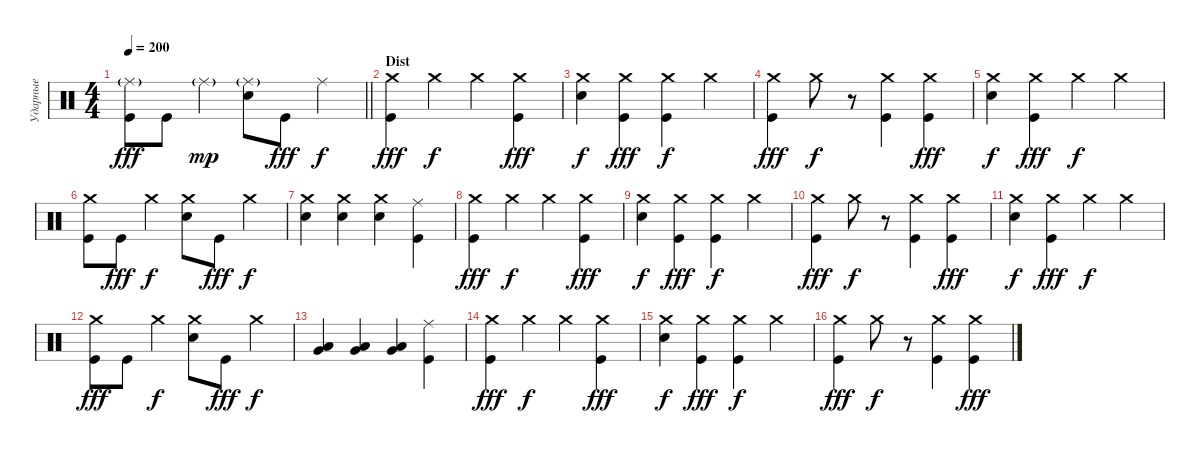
\track ("Ударные" "Ударные") {instrument percussion}
\staff {score}
\articulation defaults
\ts (4 4)
\tempo 200
\clef neutral
\barLineRight lightlight
\ks c
("Ride (middle)"{g} "Kick (hit)").8{dy fff} "Kick (hit)".8 "Ride (middle)"{g}.4{dy mp} ("Ride (middle)"{g} "Electric Snare (hit)").8 "Kick (hit)".8{dy fff} "Ride (middle)".4{dy f} |
\section ("" "Dist")
("Crash medium (hit)" "Kick (hit)").4{dy fff volume 13} "Crash medium (hit)".4{dy f} "Crash medium (hit)".4 ("Crash medium (hit)" "Kick (hit)").4{dy fff} |
("Crash medium (hit)" "Electric Snare (hit)").4{dy f} ("Crash medium (hit)" "Kick (hit)").4{dy fff} ("Crash medium (hit)" "Kick (hit)").4{dy f} "Crash medium (hit)".4 |
("Crash medium (hit)" "Kick (hit)").4{dy fff} "Crash medium (hit)".8{dy f} r.8 ("Crash medium (hit)" "Kick (hit)").4 ("Crash medium (hit)" "Kick (hit)").4{dy fff} |
("Crash medium (hit)" "Electric Snare (hit)").4{dy f} ("Crash medium (hit)" "Kick (hit)").4{dy fff} "Crash medium (hit)".4{dy f} "Crash medium (hit)".4 |
("Crash medium (hit)" "Kick (hit)").8 "Kick (hit)".8{dy fff} "Crash medium (hit)".4{dy f} ("Crash medium (hit)" "Electric Snare (hit)").8 "Kick (hit)".8{dy fff} "Crash medium (hit)".4{dy f} |
("Crash medium (hit)" "Electric Snare (hit)").4 ("Crash medium (hit)" "Electric Snare (hit)").4 ("Crash medium (hit)" "Electric Snare (hit)").4 ("Ride (middle)" "Kick (hit)").4 |
("Crash medium (hit)" "Kick (hit)").4{dy fff volume 13} "Crash medium (hit)".4{dy f} "Crash medium (hit)".4 ("Crash medium (hit)" "Kick (hit)").4{dy fff} |
("Crash medium (hit)" "Electric Snare (hit)").4{dy f} ("Crash medium (hit)" "Kick (hit)").4{dy fff} ("Crash medium (hit)" "Kick (hit)").4{dy f} "Crash medium (hit)".4 |
("Crash medium (hit)" "Kick (hit)").4{dy fff} "Crash medium (hit)".8{dy f} r.8 ("Crash medium (hit)" "Kick (hit)").4 ("Crash medium (hit)" "Kick (hit)").4{dy fff} |
("Crash medium (hit)" "Electric Snare (hit)").4{dy f} ("Crash medium (hit)" "Kick (hit)").4{dy fff} "Crash medium (hit)".4{dy f} "Crash medium (hit)".4 |
("Crash medium (hit)" "Kick (hit)").8{dy fff} "Kick (hit)".8 "Crash medium (hit)".4{dy f} ("Crash medium (hit)" "Electric Snare (hit)").8 "Kick (hit)".8{dy fff} "Crash medium (hit)".4{dy f} |
("Very Low Tom (hit)" "Low Tom (hit)").4 ("Very Low Tom (hit)" "Low Tom (hit)").4 ("Very Low Tom (hit)" "Low Tom (hit)").4 ("Ride (middle)" "Kick (hit)").4 |
("Crash medium (hit)" "Kick (hit)").4{dy fff volume 13} "Crash medium (hit)".4{dy f} "Crash medium (hit)".4 ("Crash medium (hit)" "Kick (hit)").4{dy fff} |
("Crash medium (hit)" "Electric Snare (hit)").4{dy f} ("Crash medium (hit)" "Kick (hit)").4{dy fff} ("Crash medium (hit)" "Kick (hit)").4{dy f} "Crash medium (hit)".4 |
("Crash medium (hit)" "Kick (hit)").4{dy fff} "Crash medium (hit)".8{dy f} r.8 ("Crash medium (hit)" "Kick (hit)").4 ("Crash medium (hit)" "Kick (hit)").4{dy fff}
